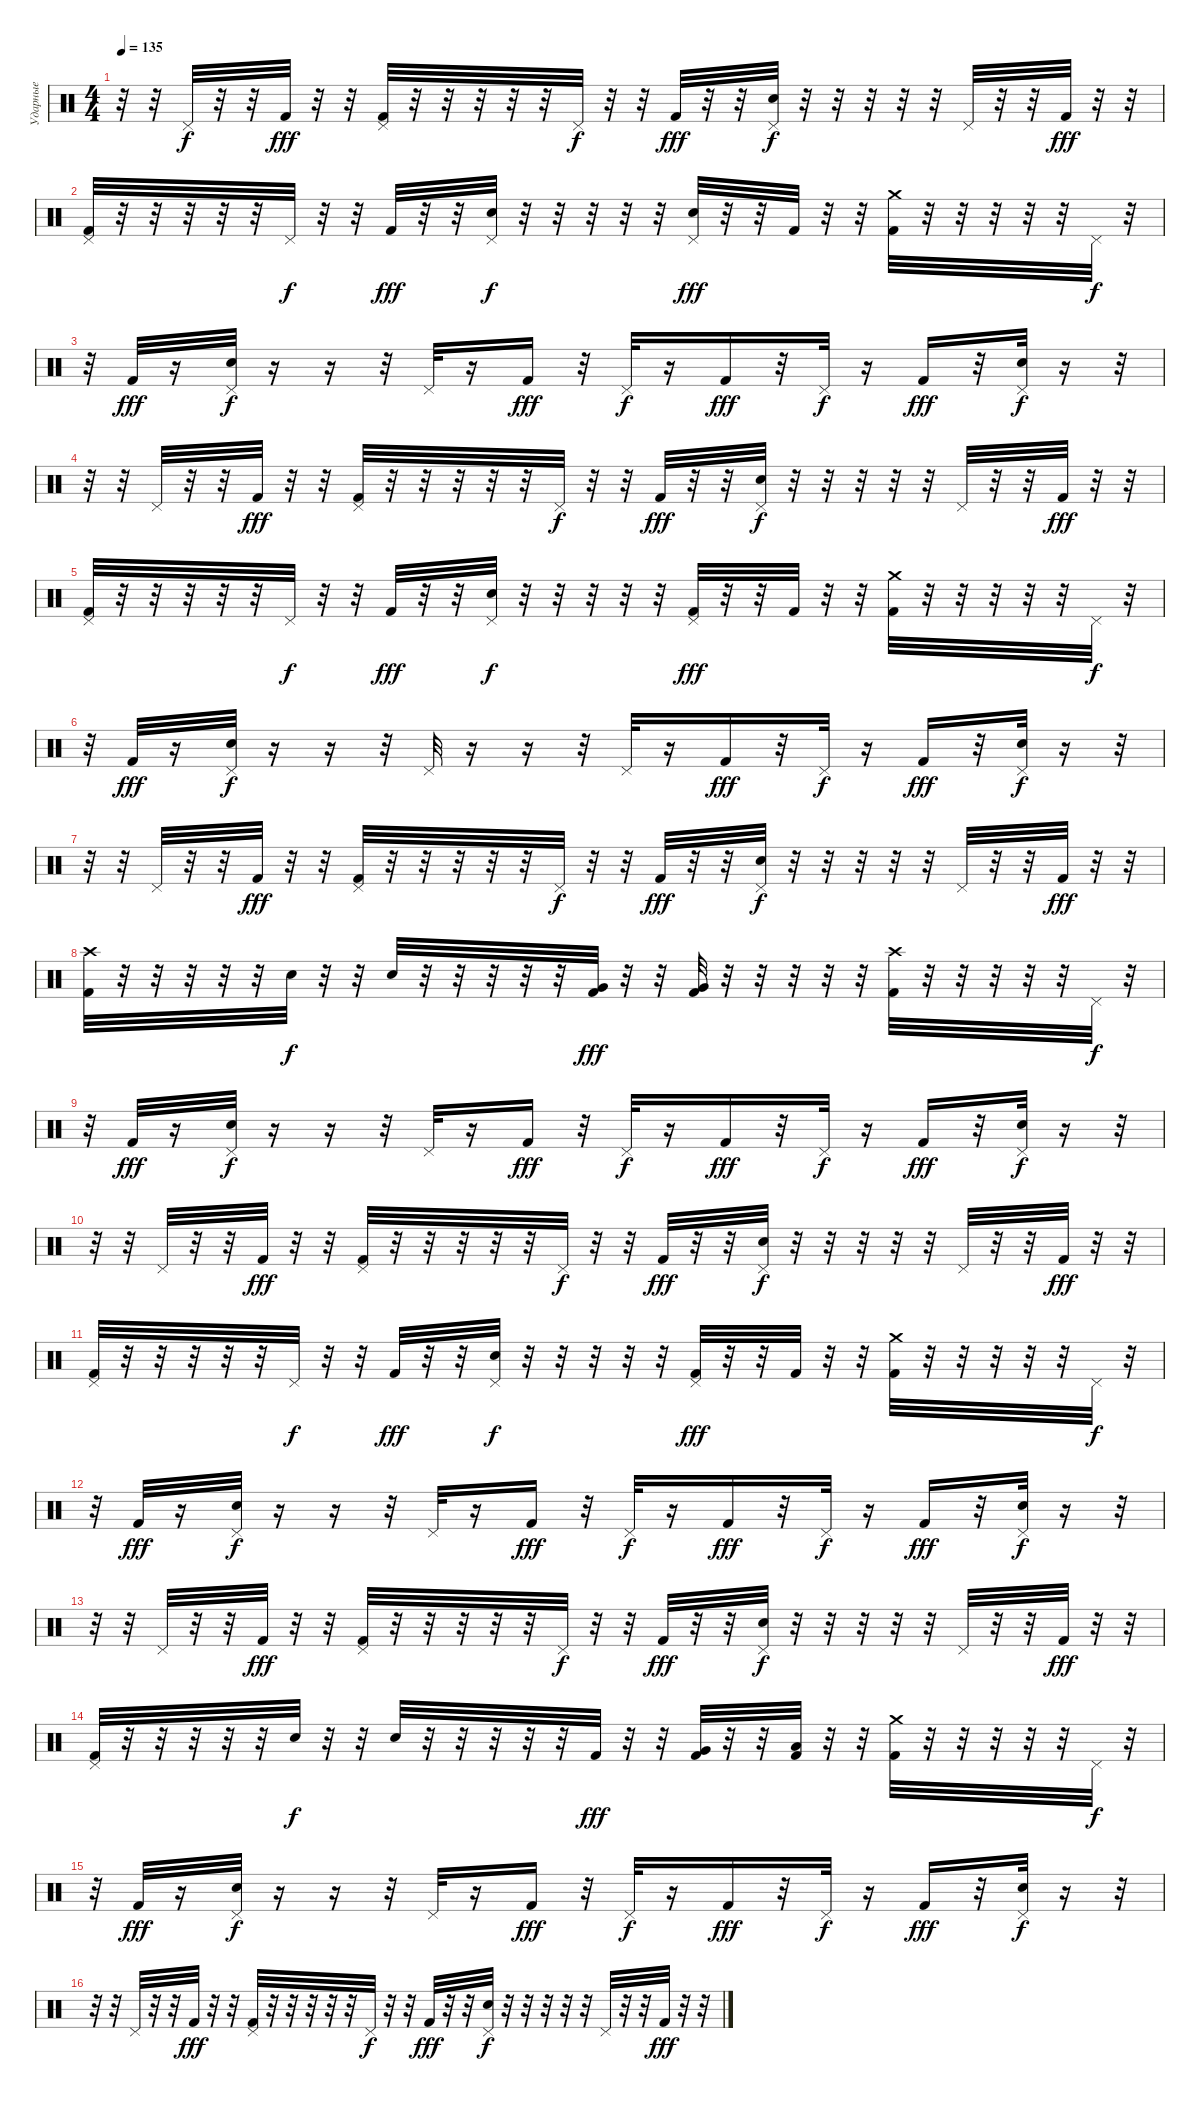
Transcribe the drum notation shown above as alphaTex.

\track ("Ударные" "Ударные") {instrument percussion}
\staff {score}
\articulation defaults
\ts (4 4)
\tempo 135
\clef neutral
\ks c
r.32{dy f} r.32 "Pedal Hi-Hat (hit)".32 r.32 r.32 "Kick (hit) 2".32{dy fff} r.32 r.32 ("Pedal Hi-Hat (hit)" "Kick (hit) 2").32 r.32 r.32 r.32 r.32 r.32 "Pedal Hi-Hat (hit)".32{dy f} r.32 r.32 "Kick (hit) 2".32{dy fff} r.32 r.32 ("Pedal Hi-Hat (hit)" "Snare (hit) 2").32{dy f} r.32 r.32 r.32 r.32 r.32 "Pedal Hi-Hat (hit)".32 r.32 r.32 "Kick (hit) 2".32{dy fff} r.32 r.32 |
("Pedal Hi-Hat (hit)" "Kick (hit) 2").32 r.32 r.32 r.32 r.32 r.32 "Pedal Hi-Hat (hit)".32{dy f} r.32 r.32 "Kick (hit) 2".32{dy fff} r.32 r.32 ("Pedal Hi-Hat (hit)" "Snare (hit) 2").32{dy f} r.32 r.32 r.32 r.32 r.32 ("Pedal Hi-Hat (hit)" "Snare (hit) 2").32{dy fff} r.32 r.32 "Kick (hit) 2".32 r.32 r.32 ("Crash medium (hit)" "Kick (hit) 2").32 r.32 r.32 r.32 r.32 r.32 "Pedal Hi-Hat (hit)".32{dy f} r.32 |
r.32 "Kick (hit) 2".32{dy fff} r.16 ("Pedal Hi-Hat (hit)" "Snare (hit) 2").32{dy f} r.16 r.16 r.32 "Pedal Hi-Hat (hit)".32 r.16 "Kick (hit) 2".16{dy fff} r.32 "Pedal Hi-Hat (hit)".32{dy f} r.16 "Kick (hit) 2".16{dy fff} r.32 "Pedal Hi-Hat (hit)".32{dy f} r.16 "Kick (hit) 2".16{dy fff} r.32 ("Pedal Hi-Hat (hit)" "Snare (hit) 2").32{dy f} r.16 r.32 |
r.32 r.32 "Pedal Hi-Hat (hit)".32 r.32 r.32 "Kick (hit) 2".32{dy fff} r.32 r.32 ("Pedal Hi-Hat (hit)" "Kick (hit) 2").32 r.32 r.32 r.32 r.32 r.32 "Pedal Hi-Hat (hit)".32{dy f} r.32 r.32 "Kick (hit) 2".32{dy fff} r.32 r.32 ("Pedal Hi-Hat (hit)" "Snare (hit) 2").32{dy f} r.32 r.32 r.32 r.32 r.32 "Pedal Hi-Hat (hit)".32 r.32 r.32 "Kick (hit) 2".32{dy fff} r.32 r.32 |
("Pedal Hi-Hat (hit)" "Kick (hit) 2").32 r.32 r.32 r.32 r.32 r.32 "Pedal Hi-Hat (hit)".32{dy f} r.32 r.32 "Kick (hit) 2".32{dy fff} r.32 r.32 ("Pedal Hi-Hat (hit)" "Snare (hit) 2").32{dy f} r.32 r.32 r.32 r.32 r.32 ("Pedal Hi-Hat (hit)" "Kick (hit) 2").32{dy fff} r.32 r.32 "Kick (hit) 2".32 r.32 r.32 ("Crash medium (hit)" "Kick (hit) 2").32 r.32 r.32 r.32 r.32 r.32 "Pedal Hi-Hat (hit)".32{dy f} r.32 |
r.32 "Kick (hit) 2".32{dy fff} r.16 ("Pedal Hi-Hat (hit)" "Snare (hit) 2").32{dy f} r.16 r.16 r.32 "Pedal Hi-Hat (hit)".32 r.16 r.16 r.32 "Pedal Hi-Hat (hit)".32 r.16 "Kick (hit) 2".16{dy fff} r.32 "Pedal Hi-Hat (hit)".32{dy f} r.16 "Kick (hit) 2".16{dy fff} r.32 ("Pedal Hi-Hat (hit)" "Snare (hit) 2").32{dy f} r.16 r.32 |
r.32 r.32 "Pedal Hi-Hat (hit)".32 r.32 r.32 "Kick (hit) 2".32{dy fff} r.32 r.32 ("Pedal Hi-Hat (hit)" "Kick (hit) 2").32 r.32 r.32 r.32 r.32 r.32 "Pedal Hi-Hat (hit)".32{dy f} r.32 r.32 "Kick (hit) 2".32{dy fff} r.32 r.32 ("Pedal Hi-Hat (hit)" "Snare (hit) 2").32{dy f} r.32 r.32 r.32 r.32 r.32 "Pedal Hi-Hat (hit)".32 r.32 r.32 "Kick (hit) 2".32{dy fff} r.32 r.32 |
("Crash high (hit)" "Kick (hit) 2").32 r.32 r.32 r.32 r.32 r.32 "Snare (hit) 2".32{dy f} r.32 r.32 "Snare (hit) 2".32 r.32 r.32 r.32 r.32 r.32 ("Very Low Tom (hit)" "Kick (hit) 2").32{dy fff} r.32 r.32 ("Very Low Tom (hit)" "Kick (hit) 2").32 r.32 r.32 r.32 r.32 r.32 ("Crash high (hit)" "Kick (hit) 2").32 r.32 r.32 r.32 r.32 r.32 "Pedal Hi-Hat (hit)".32{dy f} r.32 |
r.32 "Kick (hit) 2".32{dy fff} r.16 ("Pedal Hi-Hat (hit)" "Snare (hit) 2").32{dy f} r.16 r.16 r.32 "Pedal Hi-Hat (hit)".32 r.16 "Kick (hit) 2".16{dy fff} r.32 "Pedal Hi-Hat (hit)".32{dy f} r.16 "Kick (hit) 2".16{dy fff} r.32 "Pedal Hi-Hat (hit)".32{dy f} r.16 "Kick (hit) 2".16{dy fff} r.32 ("Pedal Hi-Hat (hit)" "Snare (hit) 2").32{dy f} r.16 r.32 |
r.32 r.32 "Pedal Hi-Hat (hit)".32 r.32 r.32 "Kick (hit) 2".32{dy fff} r.32 r.32 ("Pedal Hi-Hat (hit)" "Kick (hit) 2").32 r.32 r.32 r.32 r.32 r.32 "Pedal Hi-Hat (hit)".32{dy f} r.32 r.32 "Kick (hit) 2".32{dy fff} r.32 r.32 ("Pedal Hi-Hat (hit)" "Snare (hit) 2").32{dy f} r.32 r.32 r.32 r.32 r.32 "Pedal Hi-Hat (hit)".32 r.32 r.32 "Kick (hit) 2".32{dy fff} r.32 r.32 |
("Pedal Hi-Hat (hit)" "Kick (hit) 2").32 r.32 r.32 r.32 r.32 r.32 "Pedal Hi-Hat (hit)".32{dy f} r.32 r.32 "Kick (hit) 2".32{dy fff} r.32 r.32 ("Pedal Hi-Hat (hit)" "Snare (hit) 2").32{dy f} r.32 r.32 r.32 r.32 r.32 ("Pedal Hi-Hat (hit)" "Kick (hit) 2").32{dy fff} r.32 r.32 "Kick (hit) 2".32 r.32 r.32 ("Crash medium (hit)" "Kick (hit) 2").32 r.32 r.32 r.32 r.32 r.32 "Pedal Hi-Hat (hit)".32{dy f} r.32 |
r.32 "Kick (hit) 2".32{dy fff} r.16 ("Pedal Hi-Hat (hit)" "Snare (hit) 2").32{dy f} r.16 r.16 r.32 "Pedal Hi-Hat (hit)".32 r.16 "Kick (hit) 2".16{dy fff} r.32 "Pedal Hi-Hat (hit)".32{dy f} r.16 "Kick (hit) 2".16{dy fff} r.32 "Pedal Hi-Hat (hit)".32{dy f} r.16 "Kick (hit) 2".16{dy fff} r.32 ("Pedal Hi-Hat (hit)" "Snare (hit) 2").32{dy f} r.16 r.32 |
r.32 r.32 "Pedal Hi-Hat (hit)".32 r.32 r.32 "Kick (hit) 2".32{dy fff} r.32 r.32 ("Pedal Hi-Hat (hit)" "Kick (hit) 2").32 r.32 r.32 r.32 r.32 r.32 "Pedal Hi-Hat (hit)".32{dy f} r.32 r.32 "Kick (hit) 2".32{dy fff} r.32 r.32 ("Pedal Hi-Hat (hit)" "Snare (hit) 2").32{dy f} r.32 r.32 r.32 r.32 r.32 "Pedal Hi-Hat (hit)".32 r.32 r.32 "Kick (hit) 2".32{dy fff} r.32 r.32 |
("Pedal Hi-Hat (hit)" "Kick (hit) 2").32 r.32 r.32 r.32 r.32 r.32 "Snare (hit) 2".32{dy f} r.32 r.32 "Snare (hit) 2".32 r.32 r.32 r.32 r.32 r.32 "Kick (hit) 2".32{dy fff} r.32 r.32 ("Very Low Tom (hit)" "Kick (hit) 2").32 r.32 r.32 ("Low Floor Tom (hit)" "Kick (hit) 2").32 r.32 r.32 ("Crash medium (hit)" "Kick (hit) 2").32 r.32 r.32 r.32 r.32 r.32 "Pedal Hi-Hat (hit)".32{dy f} r.32 |
r.32 "Kick (hit) 2".32{dy fff} r.16 ("Pedal Hi-Hat (hit)" "Snare (hit) 2").32{dy f} r.16 r.16 r.32 "Pedal Hi-Hat (hit)".32 r.16 "Kick (hit) 2".16{dy fff} r.32 "Pedal Hi-Hat (hit)".32{dy f} r.16 "Kick (hit) 2".16{dy fff} r.32 "Pedal Hi-Hat (hit)".32{dy f} r.16 "Kick (hit) 2".16{dy fff} r.32 ("Pedal Hi-Hat (hit)" "Snare (hit) 2").32{dy f} r.16 r.32 |
r.32 r.32 "Pedal Hi-Hat (hit)".32 r.32 r.32 "Kick (hit) 2".32{dy fff} r.32 r.32 ("Pedal Hi-Hat (hit)" "Kick (hit) 2").32 r.32 r.32 r.32 r.32 r.32 "Pedal Hi-Hat (hit)".32{dy f} r.32 r.32 "Kick (hit) 2".32{dy fff} r.32 r.32 ("Pedal Hi-Hat (hit)" "Snare (hit) 2").32{dy f} r.32 r.32 r.32 r.32 r.32 "Pedal Hi-Hat (hit)".32 r.32 r.32 "Kick (hit) 2".32{dy fff} r.32 r.32
